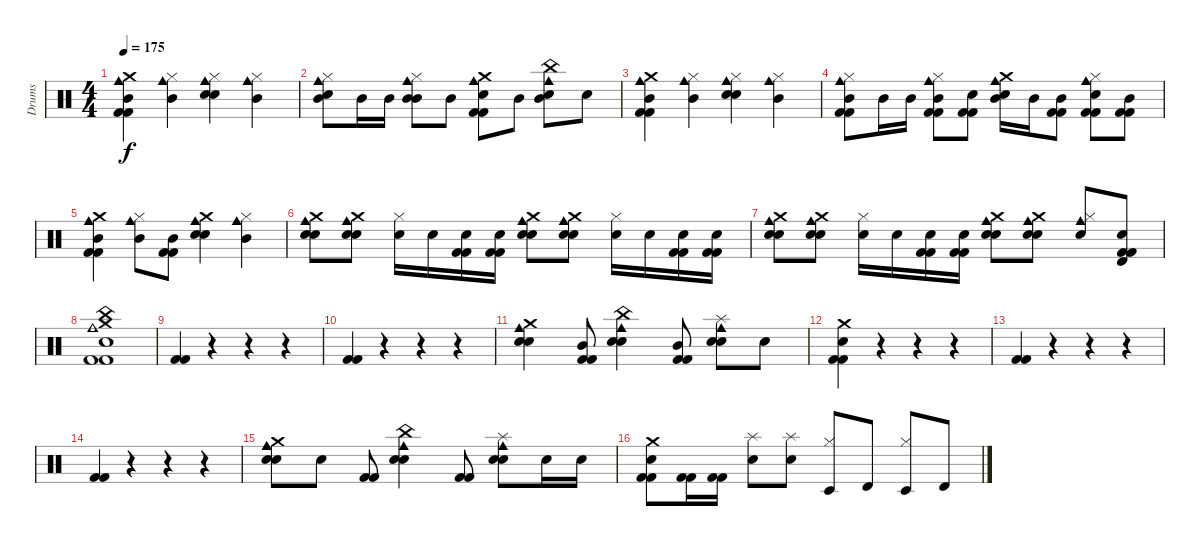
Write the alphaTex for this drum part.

\track ("Drums" "Drums") {instrument percussion}
\staff {score}
\articulation defaults
\ts (4 4)
\tempo 175
\clef neutral
\ks c
("Crash medium (hit)" "Mid Tom (hit)" "Cowbell medium (hit)" "Kick (hit) 2" "Kick (hit) 2").4{dy f} ("Hi-Hat (closed)" "Mid Tom (hit)" "Cowbell medium (hit)").4 ("Hi-Hat (closed)" "Electric Snare (hit)" "Snare (hit) 2" "Cowbell medium (hit)").4 ("Hi-Hat (closed)" "Mid Tom (hit)" "Cowbell medium (hit)").4 |
("Hi-Hat (closed)" "Mid Tom (hit)" "Snare (hit) 2" "Cowbell medium (hit)").8 "Mid Tom (hit)".16 "Mid Tom (hit)".16 ("Hi-Hat (closed)" "Mid Tom (hit)" "Mid Tom (hit)" "Cowbell medium (hit)").8 "Mid Tom (hit)".8 ("Crash medium (hit)" "Electric Snare (hit)" "Cowbell medium (hit)" "Kick (hit) 2" "Kick (hit) 2").8 "Mid Tom (hit)".8 ("China (hit)" "Mid Tom (hit)" "Snare (hit) 2" "Cowbell medium (hit)").8 "Electric Snare (hit)".8 |
("Crash medium (hit)" "Mid Tom (hit)" "Cowbell medium (hit)" "Kick (hit) 2" "Kick (hit) 2").4 ("Hi-Hat (closed)" "Mid Tom (hit)" "Cowbell medium (hit)").4 ("Hi-Hat (closed)" "Electric Snare (hit)" "Snare (hit) 2" "Cowbell medium (hit)").4 ("Hi-Hat (closed)" "Mid Tom (hit)" "Cowbell medium (hit)").4 |
("Hi-Hat (closed)" "Mid Tom (hit)" "Cowbell medium (hit)" "Kick (hit) 2" "Kick (hit) 2").8 "Mid Tom (hit)".16 "Mid Tom (hit)".16 ("Hi-Hat (closed)" "Mid Tom (hit)" "Cowbell medium (hit)" "Kick (hit) 2" "Kick (hit) 2").8 ("Electric Snare (hit)" "Kick (hit) 2" "Kick (hit) 2").8 ("Crash medium (hit)" "Mid Tom (hit)" "Snare (hit) 2" "Cowbell medium (hit)").16 "Mid Tom (hit)".16 ("Mid Tom (hit)" "Kick (hit) 2" "Kick (hit) 2").8 ("Hi-Hat (closed)" "Electric Snare (hit)" "Cowbell medium (hit)" "Kick (hit) 2" "Kick (hit) 2").8 ("Mid Tom (hit)" "Kick (hit) 2" "Kick (hit) 2").8 |
("Crash medium (hit)" "Mid Tom (hit)" "Cowbell medium (hit)" "Kick (hit) 2" "Kick (hit) 2").4 ("Hi-Hat (closed)" "Mid Tom (hit)" "Cowbell medium (hit)").8 ("Mid Tom (hit)" "Kick (hit) 2" "Kick (hit) 2").8 ("Crash medium (hit)" "Electric Snare (hit)" "Snare (hit) 2" "Cowbell medium (hit)").4 ("Hi-Hat (closed)" "Mid Tom (hit)" "Cowbell medium (hit)").4 |
("Crash medium (hit)" "Electric Snare (hit)" "Snare (hit) 2" "Cowbell medium (hit)").8 ("Crash medium (hit)" "Electric Snare (hit)" "Snare (hit) 2" "Cowbell medium (hit)").8 ("Hi-Hat (closed)" "Electric Snare (hit)").16 "Electric Snare (hit)".16 ("Electric Snare (hit)" "Kick (hit) 2" "Kick (hit) 2").16 ("Electric Snare (hit)" "Kick (hit) 2" "Kick (hit) 2").16 ("Crash medium (hit)" "Electric Snare (hit)" "Snare (hit) 2" "Cowbell medium (hit)").8 ("Crash medium (hit)" "Electric Snare (hit)" "Snare (hit) 2" "Cowbell medium (hit)").8 ("Hi-Hat (closed)" "Electric Snare (hit)").16 "Electric Snare (hit)".16 ("Electric Snare (hit)" "Kick (hit) 2" "Kick (hit) 2").16 ("Electric Snare (hit)" "Kick (hit) 2" "Kick (hit) 2").16 |
("Crash medium (hit)" "Electric Snare (hit)" "Snare (hit) 2" "Cowbell medium (hit)").8 ("Crash medium (hit)" "Electric Snare (hit)" "Snare (hit) 2" "Cowbell medium (hit)").8 ("Hi-Hat (closed)" "Electric Snare (hit)").16 "Electric Snare (hit)".16 ("Electric Snare (hit)" "Kick (hit) 2" "Kick (hit) 2").16 ("Electric Snare (hit)" "Kick (hit) 2" "Kick (hit) 2").16 ("Crash medium (hit)" "Electric Snare (hit)" "Snare (hit) 2" "Cowbell medium (hit)").8 ("Crash medium (hit)" "Electric Snare (hit)" "Snare (hit) 2" "Cowbell medium (hit)").8 ("Hi-Hat (closed)" "Electric Snare (hit)" "Cowbell medium (hit)").8 ("Electric Snare (hit)" "Timbale high (hit)" "Kick (hit) 2" "Kick (hit) 2").8 |
("China (hit)" "Crash medium (hit)" "Electric Snare (hit)" "Cowbell medium (hit)" "Kick (hit) 2" "Kick (hit) 2").1 |
("Kick (hit) 2" "Kick (hit) 2").4 r.4 r.4 r.4 |
("Kick (hit) 2" "Kick (hit) 2").4 r.4 r.4 r.4 |
("Crash medium (hit)" "Electric Snare (hit)" "Snare (hit) 2" "Cowbell medium (hit)").4 ("Mid Tom (hit)" "Kick (hit) 2" "Kick (hit) 2").8 ("China (hit)" "Electric Snare (hit)" "Snare (hit) 2" "Cowbell medium (hit)").4 ("Mid Tom (hit)" "Kick (hit) 2" "Kick (hit) 2").8 ("Splash (hit)" "Electric Snare (hit)" "Snare (hit) 2" "Cowbell medium (hit)").8 "Electric Snare (hit)".8 |
("Crash medium (hit)" "Electric Snare (hit)" "Kick (hit) 2" "Kick (hit) 2").4 r.4 r.4 r.4 |
("Kick (hit) 2" "Kick (hit) 2").4 r.4 r.4 r.4 |
("Kick (hit) 2" "Kick (hit) 2").4 r.4 r.4 r.4 |
("Crash medium (hit)" "Electric Snare (hit)" "Snare (hit) 2" "Cowbell medium (hit)" "Cowbell medium (hit)").8 "Electric Snare (hit)".8 ("Kick (hit) 2" "Kick (hit) 2").8 ("China (hit)" "Electric Snare (hit)" "Snare (hit) 2" "Cowbell medium (hit)").4 ("Kick (hit) 2" "Kick (hit) 2").8 ("Splash (hit)" "Electric Snare (hit)" "Snare (hit) 2" "Cowbell medium (hit)").8 "Electric Snare (hit)".16 "Electric Snare (hit)".16 |
("Crash medium (hit)" "Electric Snare (hit)" "Kick (hit) 2" "Kick (hit) 2").8 ("Kick (hit) 2" "Kick (hit) 2").16 ("Kick (hit) 2" "Kick (hit) 2").16 ("Splash (hit)" "Snare (hit) 2").8 ("Splash (hit)" "Snare (hit) 2").8 ("Hi-Hat (closed)" "Timbale low (hit)").8 "Timbale high (hit)".8 ("Hi-Hat (closed)" "Timbale low (hit)").8 "Timbale high (hit)".8
